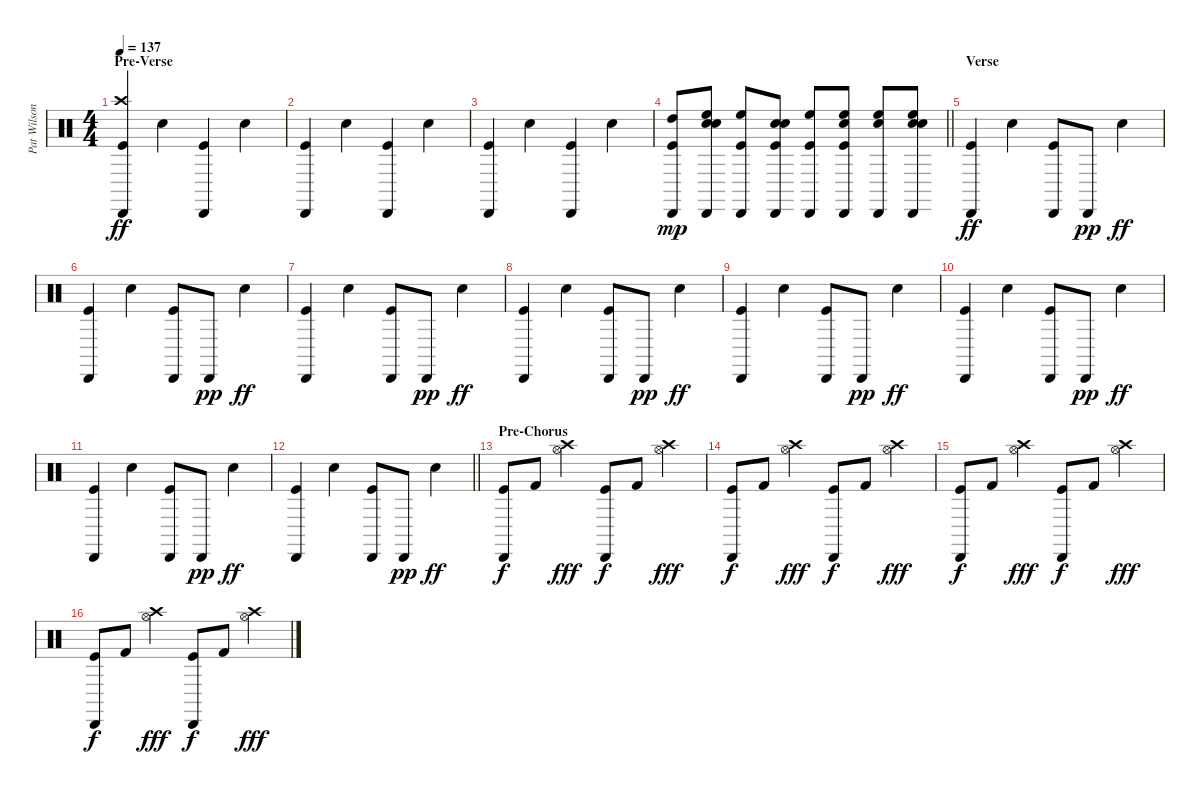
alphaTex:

\track ("Pat Wilson" "Pat Wilson") {instrument percussion}
\staff {score}
\articulation defaults
\ts (4 4)
\section ("" "Pre-Verse")
\tempo 137
\clef neutral
\ks c
("Cabasa (hit)" "Crash high (hit)" "Kick (hit)").4{dy ff} "Snare (hit) 2".4 ("Cabasa (hit)" "Kick (hit)").4 "Snare (hit) 2".4 |
("Cabasa (hit)" "Kick (hit)").4 "Snare (hit) 2".4 ("Cabasa (hit)" "Kick (hit)").4 "Snare (hit) 2".4 |
("Cabasa (hit)" "Kick (hit)").4 "Snare (hit) 2".4 ("Cabasa (hit)" "Kick (hit)").4 "Snare (hit) 2".4 |
\barLineRight lightlight
("Cabasa (hit)" "High Tom (hit)" "Kick (hit)").8{dy mp} ("Cabasa (hit)" "High Floor Tom (hit)" "Snare (hit) 2" "Snare (hit) 2").8 ("Cabasa (hit)" "High Floor Tom (hit)" "Kick (hit)").8 ("Cabasa (hit)" "Snare (hit) 2" "Kick (hit)" "Snare (hit) 2").8 ("Cabasa (hit)" "High Floor Tom (hit)" "Kick (hit)").8 ("Cabasa (hit)" "High Floor Tom (hit)" "Kick (hit)" "Snare (hit) 2").8 ("Cabasa (hit)" "High Floor Tom (hit)" "Snare (hit) 2").8 ("Cabasa (hit)" "High Floor Tom (hit)" "Snare (hit) 2" "Snare (hit) 2").8 |
\section ("" "Verse")
("Cabasa (hit)" "Kick (hit)").4{dy ff} "Snare (hit) 2".4 ("Cabasa (hit)" "Kick (hit)").8 "Cabasa (hit)".8{dy pp} "Snare (hit) 2".4{dy ff} |
("Cabasa (hit)" "Kick (hit)").4 "Snare (hit) 2".4 ("Cabasa (hit)" "Kick (hit)").8 "Cabasa (hit)".8{dy pp} "Snare (hit) 2".4{dy ff} |
("Cabasa (hit)" "Kick (hit)").4 "Snare (hit) 2".4 ("Cabasa (hit)" "Kick (hit)").8 "Cabasa (hit)".8{dy pp} "Snare (hit) 2".4{dy ff} |
("Cabasa (hit)" "Kick (hit)").4 "Snare (hit) 2".4 ("Cabasa (hit)" "Kick (hit)").8 "Cabasa (hit)".8{dy pp} "Snare (hit) 2".4{dy ff} |
("Cabasa (hit)" "Kick (hit)").4 "Snare (hit) 2".4 ("Cabasa (hit)" "Kick (hit)").8 "Cabasa (hit)".8{dy pp} "Snare (hit) 2".4{dy ff} |
("Cabasa (hit)" "Kick (hit)").4 "Snare (hit) 2".4 ("Cabasa (hit)" "Kick (hit)").8 "Cabasa (hit)".8{dy pp} "Snare (hit) 2".4{dy ff} |
("Cabasa (hit)" "Kick (hit)").4 "Snare (hit) 2".4 ("Cabasa (hit)" "Kick (hit)").8 "Cabasa (hit)".8{dy pp} "Snare (hit) 2".4{dy ff} |
\barLineRight lightlight
("Cabasa (hit)" "Kick (hit)").4 "Snare (hit) 2".4 ("Cabasa (hit)" "Kick (hit)").8 "Cabasa (hit)".8{dy pp} "Snare (hit) 2".4{dy ff} |
\section ("" "Pre-Chorus")
("Cabasa (hit)" "Kick (hit)").8{dy f} "Kick (hit) 2".8 ("Hi-Hat (open)" "Crash high (hit)").4{dy fff} ("Cabasa (hit)" "Kick (hit)").8{dy f} "Kick (hit) 2".8 ("Hi-Hat (open)" "Crash high (hit)").4{dy fff} |
("Cabasa (hit)" "Kick (hit)").8{dy f} "Kick (hit) 2".8 ("Hi-Hat (open)" "Crash high (hit)").4{dy fff} ("Cabasa (hit)" "Kick (hit)").8{dy f} "Kick (hit) 2".8 ("Hi-Hat (open)" "Crash high (hit)").4{dy fff} |
("Cabasa (hit)" "Kick (hit)").8{dy f} "Kick (hit) 2".8 ("Hi-Hat (open)" "Crash high (hit)").4{dy fff} ("Cabasa (hit)" "Kick (hit)").8{dy f} "Kick (hit) 2".8 ("Hi-Hat (open)" "Crash high (hit)").4{dy fff} |
("Cabasa (hit)" "Kick (hit)").8{dy f} "Kick (hit) 2".8 ("Hi-Hat (open)" "Crash high (hit)").4{dy fff} ("Cabasa (hit)" "Kick (hit)").8{dy f} "Kick (hit) 2".8 ("Hi-Hat (open)" "Crash high (hit)").4{dy fff}
